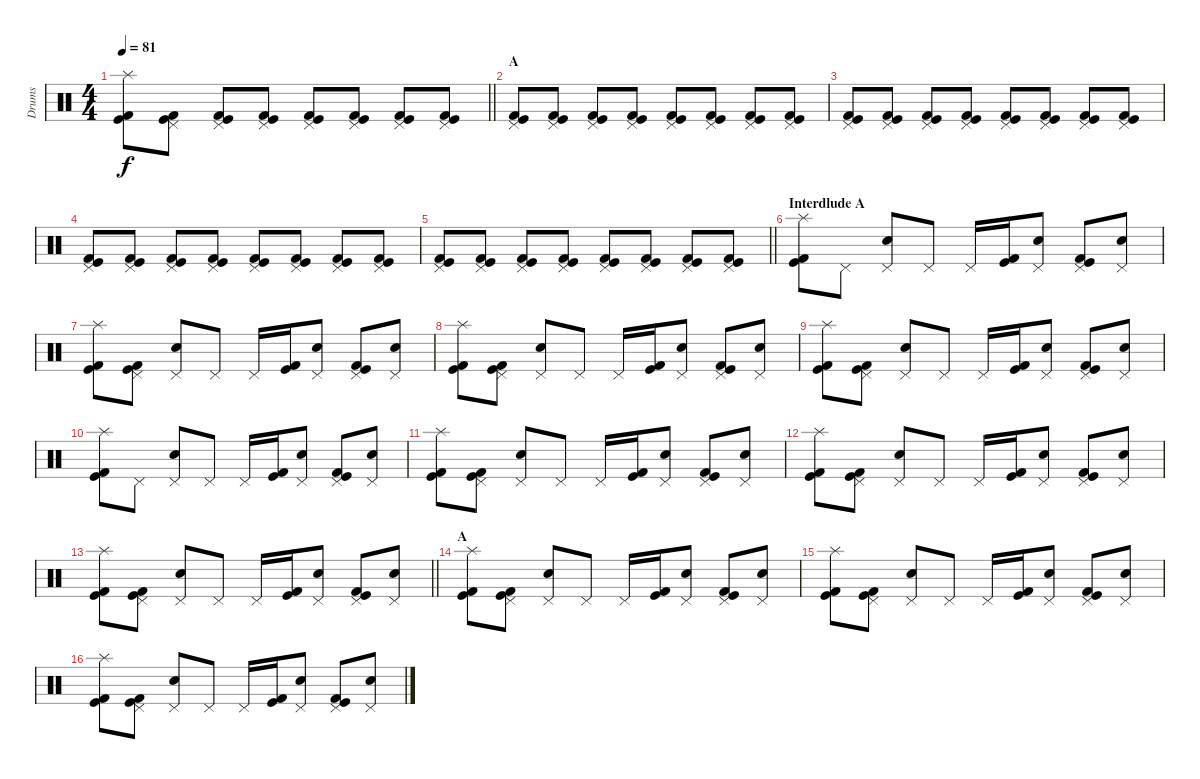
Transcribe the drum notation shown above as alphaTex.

\track ("Drums" "Drums") {instrument percussion}
\staff {score}
\articulation defaults
\ts (4 4)
\tempo 81
\clef neutral
\barLineRight lightlight
\ks c
("Splash (hit)" "Kick (hit)" "Kick (hit) 2").8{dy f} ("Pedal Hi-Hat (hit)" "Kick (hit)" "Kick (hit) 2").8 ("Pedal Hi-Hat (hit)" "Kick (hit)" "Kick (hit) 2").8 ("Pedal Hi-Hat (hit)" "Kick (hit)" "Kick (hit) 2").8 ("Pedal Hi-Hat (hit)" "Kick (hit)" "Kick (hit) 2").8 ("Pedal Hi-Hat (hit)" "Kick (hit)" "Kick (hit) 2").8 ("Pedal Hi-Hat (hit)" "Kick (hit)" "Kick (hit) 2").8 ("Pedal Hi-Hat (hit)" "Kick (hit)" "Kick (hit) 2").8 |
\section ("" "A")
("Pedal Hi-Hat (hit)" "Kick (hit)" "Kick (hit) 2").8 ("Pedal Hi-Hat (hit)" "Kick (hit)" "Kick (hit) 2").8 ("Pedal Hi-Hat (hit)" "Kick (hit)" "Kick (hit) 2").8 ("Pedal Hi-Hat (hit)" "Kick (hit)" "Kick (hit) 2").8 ("Pedal Hi-Hat (hit)" "Kick (hit)" "Kick (hit) 2").8 ("Pedal Hi-Hat (hit)" "Kick (hit)" "Kick (hit) 2").8 ("Pedal Hi-Hat (hit)" "Kick (hit)" "Kick (hit) 2").8 ("Pedal Hi-Hat (hit)" "Kick (hit)" "Kick (hit) 2").8 |
("Pedal Hi-Hat (hit)" "Kick (hit)" "Kick (hit) 2").8 ("Pedal Hi-Hat (hit)" "Kick (hit)" "Kick (hit) 2").8 ("Pedal Hi-Hat (hit)" "Kick (hit)" "Kick (hit) 2").8 ("Pedal Hi-Hat (hit)" "Kick (hit)" "Kick (hit) 2").8 ("Pedal Hi-Hat (hit)" "Kick (hit)" "Kick (hit) 2").8 ("Pedal Hi-Hat (hit)" "Kick (hit)" "Kick (hit) 2").8 ("Pedal Hi-Hat (hit)" "Kick (hit)" "Kick (hit) 2").8 ("Pedal Hi-Hat (hit)" "Kick (hit)" "Kick (hit) 2").8 |
("Pedal Hi-Hat (hit)" "Kick (hit)" "Kick (hit) 2").8 ("Pedal Hi-Hat (hit)" "Kick (hit)" "Kick (hit) 2").8 ("Pedal Hi-Hat (hit)" "Kick (hit)" "Kick (hit) 2").8 ("Pedal Hi-Hat (hit)" "Kick (hit)" "Kick (hit) 2").8 ("Pedal Hi-Hat (hit)" "Kick (hit)" "Kick (hit) 2").8 ("Pedal Hi-Hat (hit)" "Kick (hit)" "Kick (hit) 2").8 ("Pedal Hi-Hat (hit)" "Kick (hit)" "Kick (hit) 2").8 ("Pedal Hi-Hat (hit)" "Kick (hit)" "Kick (hit) 2").8 |
\barLineRight lightlight
("Pedal Hi-Hat (hit)" "Kick (hit)" "Kick (hit) 2").8 ("Pedal Hi-Hat (hit)" "Kick (hit)" "Kick (hit) 2").8 ("Pedal Hi-Hat (hit)" "Kick (hit)" "Kick (hit) 2").8 ("Pedal Hi-Hat (hit)" "Kick (hit)" "Kick (hit) 2").8 ("Pedal Hi-Hat (hit)" "Kick (hit)" "Kick (hit) 2").8 ("Pedal Hi-Hat (hit)" "Kick (hit)" "Kick (hit) 2").8 ("Pedal Hi-Hat (hit)" "Kick (hit)" "Kick (hit) 2").8 ("Pedal Hi-Hat (hit)" "Kick (hit)" "Kick (hit) 2").8 |
\section ("" "Interdlude A")
("Splash (hit)" "Kick (hit)" "Kick (hit) 2").8 "Pedal Hi-Hat (hit)".8 ("Pedal Hi-Hat (hit)" "Electric Snare (hit)").8 "Pedal Hi-Hat (hit)".8 "Pedal Hi-Hat (hit)".16 ("Kick (hit)" "Kick (hit) 2").16 ("Pedal Hi-Hat (hit)" "Electric Snare (hit)").8 ("Pedal Hi-Hat (hit)" "Kick (hit)" "Kick (hit) 2").8 ("Pedal Hi-Hat (hit)" "Electric Snare (hit)").8 |
("Splash (hit)" "Kick (hit)" "Kick (hit) 2").8 ("Pedal Hi-Hat (hit)" "Kick (hit)" "Kick (hit) 2").8 ("Pedal Hi-Hat (hit)" "Electric Snare (hit)").8 "Pedal Hi-Hat (hit)".8 "Pedal Hi-Hat (hit)".16 ("Kick (hit)" "Kick (hit) 2").16 ("Pedal Hi-Hat (hit)" "Electric Snare (hit)").8 ("Pedal Hi-Hat (hit)" "Kick (hit)" "Kick (hit) 2").8 ("Pedal Hi-Hat (hit)" "Electric Snare (hit)").8 |
("Splash (hit)" "Kick (hit)" "Kick (hit) 2").8 ("Pedal Hi-Hat (hit)" "Kick (hit)" "Kick (hit) 2").8 ("Pedal Hi-Hat (hit)" "Electric Snare (hit)").8 "Pedal Hi-Hat (hit)".8 "Pedal Hi-Hat (hit)".16 ("Kick (hit)" "Kick (hit) 2").16 ("Pedal Hi-Hat (hit)" "Electric Snare (hit)").8 ("Pedal Hi-Hat (hit)" "Kick (hit)" "Kick (hit) 2").8 ("Pedal Hi-Hat (hit)" "Electric Snare (hit)").8 |
("Splash (hit)" "Kick (hit)" "Kick (hit) 2").8 ("Pedal Hi-Hat (hit)" "Kick (hit)" "Kick (hit) 2").8 ("Pedal Hi-Hat (hit)" "Electric Snare (hit)").8 "Pedal Hi-Hat (hit)".8 "Pedal Hi-Hat (hit)".16 ("Kick (hit)" "Kick (hit) 2").16 ("Pedal Hi-Hat (hit)" "Electric Snare (hit)").8 ("Pedal Hi-Hat (hit)" "Kick (hit)" "Kick (hit) 2").8 ("Pedal Hi-Hat (hit)" "Electric Snare (hit)").8 |
("Splash (hit)" "Kick (hit)" "Kick (hit) 2").8 "Pedal Hi-Hat (hit)".8 ("Pedal Hi-Hat (hit)" "Electric Snare (hit)").8 "Pedal Hi-Hat (hit)".8 "Pedal Hi-Hat (hit)".16 ("Kick (hit)" "Kick (hit) 2").16 ("Pedal Hi-Hat (hit)" "Electric Snare (hit)").8 ("Pedal Hi-Hat (hit)" "Kick (hit)" "Kick (hit) 2").8 ("Pedal Hi-Hat (hit)" "Electric Snare (hit)").8 |
("Splash (hit)" "Kick (hit)" "Kick (hit) 2").8 ("Pedal Hi-Hat (hit)" "Kick (hit)" "Kick (hit) 2").8 ("Pedal Hi-Hat (hit)" "Electric Snare (hit)").8 "Pedal Hi-Hat (hit)".8 "Pedal Hi-Hat (hit)".16 ("Kick (hit)" "Kick (hit) 2").16 ("Pedal Hi-Hat (hit)" "Electric Snare (hit)").8 ("Pedal Hi-Hat (hit)" "Kick (hit)" "Kick (hit) 2").8 ("Pedal Hi-Hat (hit)" "Electric Snare (hit)").8 |
("Splash (hit)" "Kick (hit)" "Kick (hit) 2").8 ("Pedal Hi-Hat (hit)" "Kick (hit)" "Kick (hit) 2").8 ("Pedal Hi-Hat (hit)" "Electric Snare (hit)").8 "Pedal Hi-Hat (hit)".8 "Pedal Hi-Hat (hit)".16 ("Kick (hit)" "Kick (hit) 2").16 ("Pedal Hi-Hat (hit)" "Electric Snare (hit)").8 ("Pedal Hi-Hat (hit)" "Kick (hit)" "Kick (hit) 2").8 ("Pedal Hi-Hat (hit)" "Electric Snare (hit)").8 |
\barLineRight lightlight
("Splash (hit)" "Kick (hit)" "Kick (hit) 2").8 ("Pedal Hi-Hat (hit)" "Kick (hit)" "Kick (hit) 2").8 ("Pedal Hi-Hat (hit)" "Electric Snare (hit)").8 "Pedal Hi-Hat (hit)".8 "Pedal Hi-Hat (hit)".16 ("Kick (hit)" "Kick (hit) 2").16 ("Pedal Hi-Hat (hit)" "Electric Snare (hit)").8 ("Pedal Hi-Hat (hit)" "Kick (hit)" "Kick (hit) 2").8 ("Pedal Hi-Hat (hit)" "Electric Snare (hit)").8 |
\section ("" "A")
("Splash (hit)" "Kick (hit)" "Kick (hit) 2").8 ("Pedal Hi-Hat (hit)" "Kick (hit)" "Kick (hit) 2").8 ("Pedal Hi-Hat (hit)" "Electric Snare (hit)").8 "Pedal Hi-Hat (hit)".8 "Pedal Hi-Hat (hit)".16 ("Kick (hit)" "Kick (hit) 2").16 ("Pedal Hi-Hat (hit)" "Electric Snare (hit)").8 ("Pedal Hi-Hat (hit)" "Kick (hit)" "Kick (hit) 2").8 ("Pedal Hi-Hat (hit)" "Electric Snare (hit)").8 |
("Splash (hit)" "Kick (hit)" "Kick (hit) 2").8 ("Pedal Hi-Hat (hit)" "Kick (hit)" "Kick (hit) 2").8 ("Pedal Hi-Hat (hit)" "Electric Snare (hit)").8 "Pedal Hi-Hat (hit)".8 "Pedal Hi-Hat (hit)".16 ("Kick (hit)" "Kick (hit) 2").16 ("Pedal Hi-Hat (hit)" "Electric Snare (hit)").8 ("Pedal Hi-Hat (hit)" "Kick (hit)" "Kick (hit) 2").8 ("Pedal Hi-Hat (hit)" "Electric Snare (hit)").8 |
("Splash (hit)" "Kick (hit)" "Kick (hit) 2").8 ("Pedal Hi-Hat (hit)" "Kick (hit)" "Kick (hit) 2").8 ("Pedal Hi-Hat (hit)" "Electric Snare (hit)").8 "Pedal Hi-Hat (hit)".8 "Pedal Hi-Hat (hit)".16 ("Kick (hit)" "Kick (hit) 2").16 ("Pedal Hi-Hat (hit)" "Electric Snare (hit)").8 ("Pedal Hi-Hat (hit)" "Kick (hit)" "Kick (hit) 2").8 ("Pedal Hi-Hat (hit)" "Electric Snare (hit)").8
